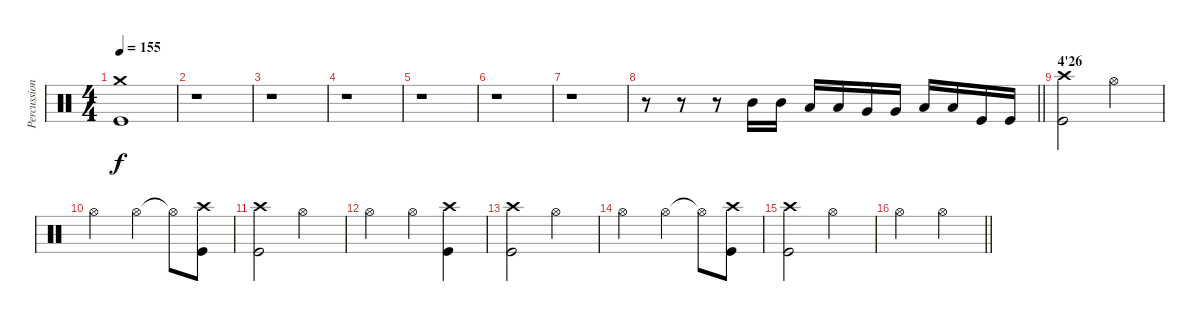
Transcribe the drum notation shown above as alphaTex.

\track ("Percussions" "Percussion") {instrument percussion}
\staff {score}
\articulation defaults
\ts (4 4)
\tempo 155
\clef neutral
\ks c
("Crash medium (hit)" "Kick (hit)").1{dy f} |
r.1 |
r.1 |
r.1 |
r.1 |
r.1 |
r.1 |
\barLineRight lightlight
r.8 r.8 r.8 "Mid Tom (hit)".16 "Mid Tom (hit)".16 "Low Tom (hit)".16 "Low Tom (hit)".16 "Very Low Tom (hit)".16 "Very Low Tom (hit)".16 "Low Floor Tom (hit)".16 "Low Floor Tom (hit)".16 "Kick (hit)".16 "Kick (hit)".16 |
\section ("" "4'26")
("Crash high (hit)" "Kick (hit)").2 "Hi-Hat (open)".2 |
"Hi-Hat (open)".2 "Hi-Hat (open)".4 "Hi-Hat (open)"{t}.8 ("Crash high (hit)" "Kick (hit)").8 |
("Crash high (hit)" "Kick (hit)").2 "Hi-Hat (open)".2 |
"Hi-Hat (open)".2 "Hi-Hat (open)".4 ("Crash high (hit)" "Kick (hit)").4 |
("Crash high (hit)" "Kick (hit)").2 "Hi-Hat (open)".2 |
"Hi-Hat (open)".2 "Hi-Hat (open)".4 "Hi-Hat (open)"{t}.8 ("Crash high (hit)" "Kick (hit)").8 |
("Crash high (hit)" "Kick (hit)").2 "Hi-Hat (open)".2 |
\barLineRight lightlight "Hi-Hat (open)".2 "Hi-Hat (open)".2
